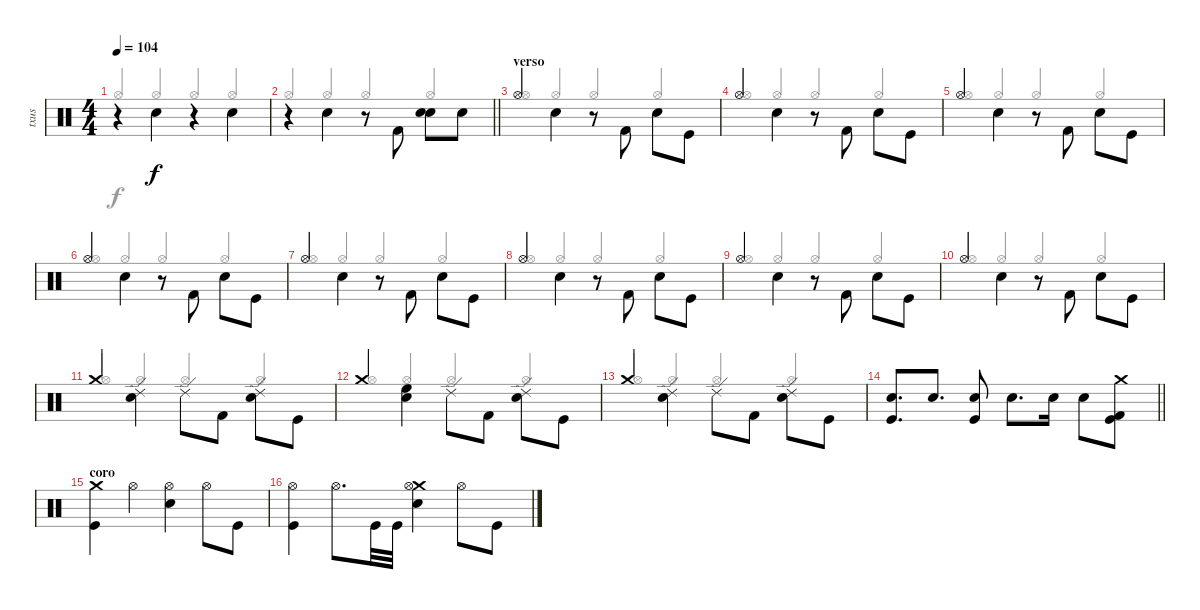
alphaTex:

\track ("txus" "txus") {instrument percussion}
\staff {score}
\articulation defaults
\voice
\ts (4 4)
\tempo 104
\clef neutral
\ks c
r.4{dy f} "Electric Snare (hit)".4{beam Down} r.4 "Electric Snare (hit)".4{beam Down} |
\barLineRight lightlight
r.4 "Electric Snare (hit)".4{beam Down} r.8 "Kick (hit) 2".8{beam Down} ("Electric Snare (hit)" "Electric Snare (hit)").8{beam Down} "Electric Snare (hit)".8 |
\section ("" "verso")
"Hi-Hat (open)".4 "Electric Snare (hit)".4{beam Down} r.8 "Kick (hit) 2".8{beam Down} "Electric Snare (hit)".8{beam Down} "Kick (hit)".8 |
"Hi-Hat (open)".4 "Electric Snare (hit)".4{beam Down} r.8 "Kick (hit) 2".8{beam Down} "Electric Snare (hit)".8{beam Down} "Kick (hit)".8 |
"Hi-Hat (open)".4 "Electric Snare (hit)".4{beam Down} r.8 "Kick (hit) 2".8{beam Down} "Electric Snare (hit)".8{beam Down} "Kick (hit)".8 |
"Hi-Hat (open)".4 "Electric Snare (hit)".4{beam Down} r.8 "Kick (hit) 2".8{beam Down} "Electric Snare (hit)".8{beam Down} "Kick (hit)".8 |
"Hi-Hat (open)".4 "Electric Snare (hit)".4{beam Down} r.8 "Kick (hit) 2".8{beam Down} "Electric Snare (hit)".8{beam Down} "Kick (hit)".8 |
"Hi-Hat (open)".4 "Electric Snare (hit)".4{beam Down} r.8 "Kick (hit) 2".8{beam Down} "Electric Snare (hit)".8{beam Down} "Kick (hit)".8 |
"Hi-Hat (open)".4 "Electric Snare (hit)".4{beam Down} r.8 "Kick (hit) 2".8{beam Down} "Electric Snare (hit)".8{beam Down} "Kick (hit)".8 |
"Hi-Hat (open)".4 "Electric Snare (hit)".4{beam Down} r.8 "Kick (hit) 2".8{beam Down} "Electric Snare (hit)".8{beam Down} "Kick (hit)".8 |
"Crash medium (hit)".4 ("Ride (edge) 2" "Electric Snare (hit)").4{beam Down} "Ride (edge) 2".8 "Kick (hit) 2".8{beam Down} ("Ride (edge) 2" "Electric Snare (hit)").8{beam Down} "Kick (hit)".8 |
"Crash medium (hit)".4 ("High Floor Tom (hit)" "Electric Snare (hit)").4{beam Down} "Ride (edge) 2".8 "Kick (hit) 2".8{beam Down} ("Ride (edge) 2" "Electric Snare (hit)").8{beam Down} "Kick (hit)".8 |
"Crash medium (hit)".4 ("Ride (edge) 2" "Electric Snare (hit)").4{beam Down} "Ride (edge) 2".8 "Kick (hit) 2".8{beam Down} ("Ride (edge) 2" "Electric Snare (hit)").8{beam Down} "Kick (hit)".8 |
\barLineRight lightlight
("Snare (hit) 2" "Kick (hit)").8{d} "Snare (hit) 2".8{d} ("Snare (hit) 2" "Kick (hit)").8 "Snare (hit) 2".8{d} "Snare (hit) 2".16 "Snare (hit) 2".8 ("Crash medium (hit)" "Kick (hit) 2" "Kick (hit)").8 |
\section ("" "coro")
("Crash medium (hit)" "Kick (hit)").4 "Hi-Hat (open)".4 ("Hi-Hat (open)" "Electric Snare (hit)").4 "Hi-Hat (open)".8 "Kick (hit)".8 |
("Hi-Hat (open)" "Kick (hit)").4 "Hi-Hat (open)".8{d} "Kick (hit)".32 "Kick (hit)".32 ("Crash medium (hit)" "Hi-Hat (open)" "Electric Snare (hit)").4 "Hi-Hat (open)".8 "Kick (hit)".8
\voice
\clef neutral
\ottava regular
\simile none
\ks c "Hi-Hat (open)".4{dy f beam Up} "Hi-Hat (open)".4{beam Up} "Hi-Hat (open)".4{beam Up} "Hi-Hat (open)".4{beam Up}
|
\barLineRight lightlight "Hi-Hat (open)".4{beam Up} "Hi-Hat (open)".4{beam Up} "Hi-Hat (open)".4{beam Up} "Hi-Hat (open)".4{beam Up}
|
"Hi-Hat (open)".4{beam Up} "Hi-Hat (open)".4{beam Up} "Hi-Hat (open)".4{beam Up} "Hi-Hat (open)".4{beam Up} |
"Hi-Hat (open)".4{beam Up} "Hi-Hat (open)".4{beam Up} "Hi-Hat (open)".4{beam Up} "Hi-Hat (open)".4{beam Up} |
"Hi-Hat (open)".4{beam Up} "Hi-Hat (open)".4{beam Up} "Hi-Hat (open)".4{beam Up} "Hi-Hat (open)".4{beam Up} |
"Hi-Hat (open)".4{beam Up} "Hi-Hat (open)".4{beam Up} "Hi-Hat (open)".4{beam Up} "Hi-Hat (open)".4{beam Up} |
"Hi-Hat (open)".4{beam Up} "Hi-Hat (open)".4{beam Up} "Hi-Hat (open)".4{beam Up} "Hi-Hat (open)".4{beam Up} |
"Hi-Hat (open)".4{beam Up} "Hi-Hat (open)".4{beam Up} "Hi-Hat (open)".4{beam Up} "Hi-Hat (open)".4{beam Up} |
"Hi-Hat (open)".4{beam Up} "Hi-Hat (open)".4{beam Up} "Hi-Hat (open)".4{beam Up} "Hi-Hat (open)".4{beam Up} |
"Hi-Hat (open)".4{beam Up} "Hi-Hat (open)".4{beam Up} "Hi-Hat (open)".4{beam Up} "Hi-Hat (open)".4{beam Up} |
"Hi-Hat (open)".4{beam Up} "Hi-Hat (open)".4{beam Up} "Hi-Hat (open)".4{beam Up} "Hi-Hat (open)".4{beam Up} |
"Hi-Hat (open)".4{beam Up} "Hi-Hat (open)".4{beam Up} "Hi-Hat (open)".4{beam Up} "Hi-Hat (open)".4{beam Up} |
"Hi-Hat (open)".4{beam Up} "Hi-Hat (open)".4{beam Up} "Hi-Hat (open)".4{beam Up} "Hi-Hat (open)".4{beam Up} |
\barLineRight lightlight
|
|
